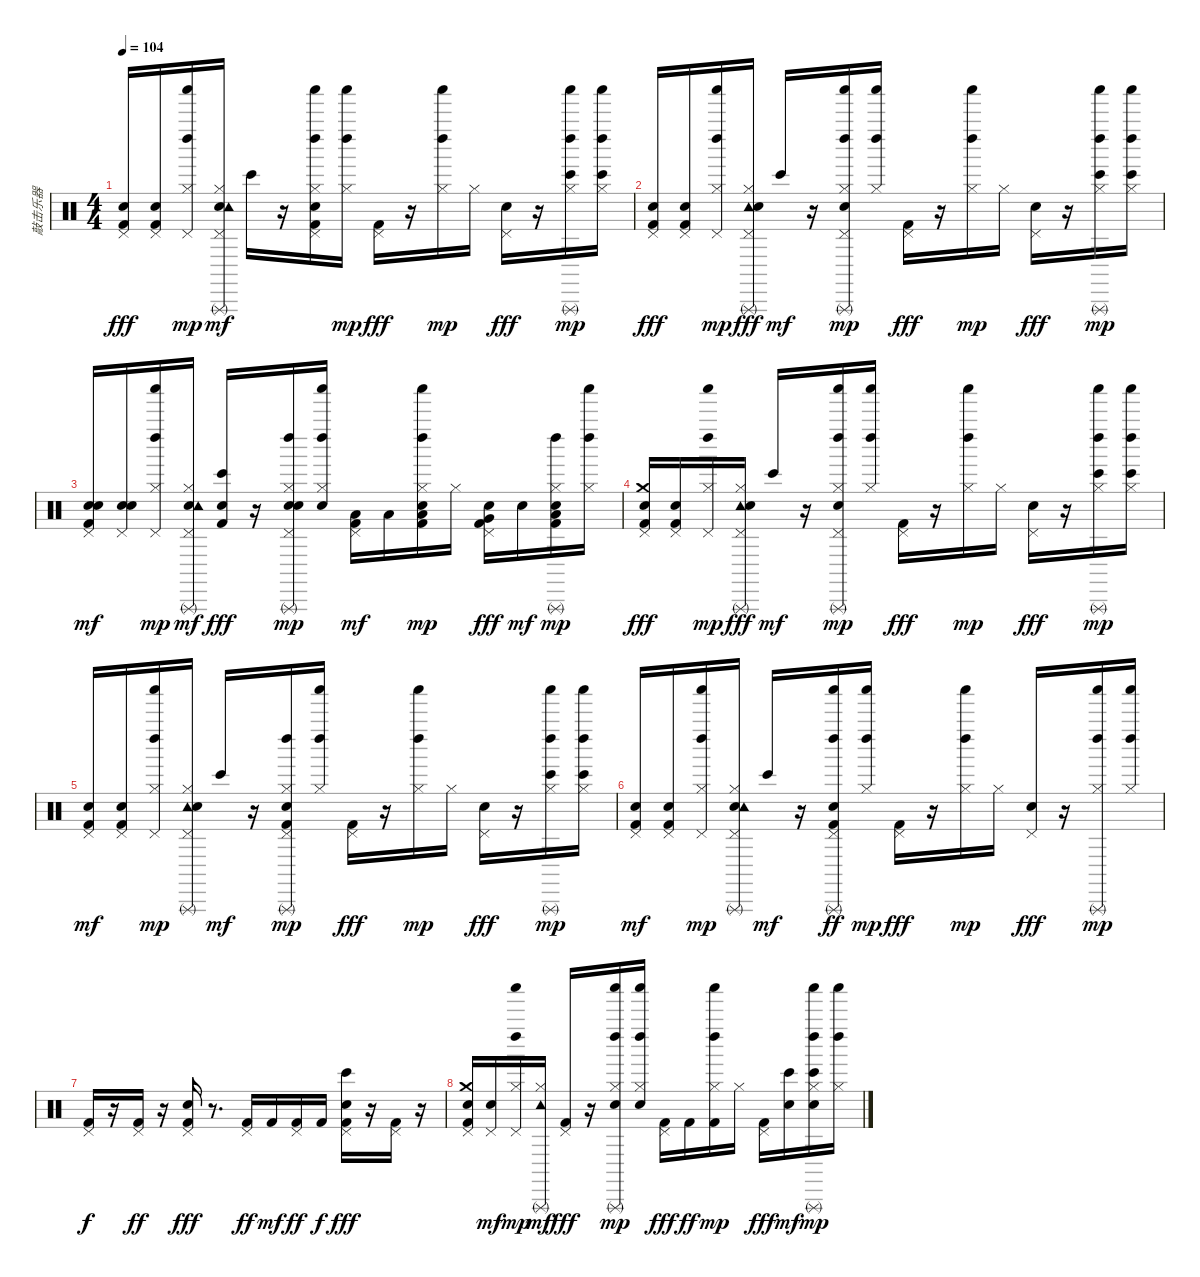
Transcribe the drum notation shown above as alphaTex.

\track ("敲击乐器" "敲击乐器") {instrument percussion}
\staff {score}
\articulation defaults
\ts (4 4)
\tempo 104
\clef neutral
\ks c
("Hand Clap (hit)" "Kick (hit) 2" "Pedal Hi-Hat (hit)").16{dy fff} ("Hand Clap (hit)" "Kick (hit) 2" "Pedal Hi-Hat (hit)").16 ("Left Maraca (hit)" "Shaker (hit)" "Hi-Hat (closed)" "Pedal Hi-Hat (hit)").16{dy mp} ("Hi-Hat (closed)" "Snare (hit) 2" "Tambourine (hit)" "Pedal Hi-Hat (hit)" "Triangle (rnute)").16{dy mf} "Bongo High (hit)".16 r.16 ("Shaker (hit)" "Left Maraca (hit)" "Hi-Hat (closed)" "Kick (hit) 2" "Pedal Hi-Hat (hit)" "Hand Clap (hit)").16 ("Shaker (hit)" "Left Maraca (hit)" "Hi-Hat (closed)").16{dy mp} ("Kick (hit) 2" "Pedal Hi-Hat (hit)").16{dy fff} r.16 ("Shaker (hit)" "Left Maraca (hit)" "Hi-Hat (closed)").16{dy mp} "Hi-Hat (closed)".16 ("Snare (hit) 2" "Pedal Hi-Hat (hit)").16{dy fff} r.16 ("Bongo High (hit)" "Shaker (hit)" "Left Maraca (hit)" "Hi-Hat (closed)" "Triangle (rnute)").16{dy mp} ("Bongo High (hit)" "Shaker (hit)" "Left Maraca (hit)" "Hi-Hat (closed)").16 |
("Pedal Hi-Hat (hit)" "Hand Clap (hit)" "Kick (hit) 2").16{dy fff} ("Pedal Hi-Hat (hit)" "Hand Clap (hit)" "Kick (hit) 2").16 ("Hi-Hat (closed)" "Pedal Hi-Hat (hit)" "Shaker (hit)" "Left Maraca (hit)").16{dy mp} ("Hi-Hat (closed)" "Pedal Hi-Hat (hit)" "Tambourine (hit)" "Triangle (rnute)" "Snare (hit) 2").16{dy fff} "Bongo High (hit)".16{dy mf} r.16 ("Hi-Hat (closed)" "Pedal Hi-Hat (hit)" "Triangle (rnute)" "Left Maraca (hit)" "Shaker (hit)" "Hand Clap (hit)").16{dy mp} ("Hi-Hat (closed)" "Left Maraca (hit)" "Shaker (hit)").16 ("Pedal Hi-Hat (hit)" "Kick (hit) 2").16{dy fff} r.16 ("Hi-Hat (closed)" "Left Maraca (hit)" "Shaker (hit)").16{dy mp} "Hi-Hat (closed)".16 ("Pedal Hi-Hat (hit)" "Snare (hit) 2").16{dy fff} r.16 ("Bongo High (hit)" "Hi-Hat (closed)" "Triangle (rnute)" "Left Maraca (hit)" "Shaker (hit)").16{dy mp} ("Bongo High (hit)" "Hi-Hat (closed)" "Left Maraca (hit)" "Shaker (hit)").16 |
("Hand Clap (hit)" "Pedal Hi-Hat (hit)" "Kick (hit) 2" "Hand Clap (hit)").16{dy mf} ("Hand Clap (hit)" "Pedal Hi-Hat (hit)" "Hand Clap (hit)").16 ("Hi-Hat (closed)" "Pedal Hi-Hat (hit)" "Shaker (hit)" "Left Maraca (hit)").16{dy mp} ("Hand Clap (hit)" "Hi-Hat (closed)" "Triangle (rnute)" "Pedal Hi-Hat (hit)" "Tambourine (hit)").16{dy mf} ("Snare (hit) 2" "Bongo High (hit)" "Kick (hit) 2").16{dy fff} r.16 ("Hand Clap (hit)" "Hi-Hat (closed)" "Triangle (rnute)" "Hand Clap (hit)" "Pedal Hi-Hat (hit)" "Left Maraca (hit)").16{dy mp} ("Hand Clap (hit)" "Hi-Hat (closed)" "Left Maraca (hit)" "Shaker (hit)").16 ("Kick (hit) 2" "Pedal Hi-Hat (hit)" "Low Tom (hit)").16{dy mf} "Low Tom (hit)".16 ("Hand Clap (hit)" "Low Tom (hit)" "Kick (hit) 2" "Hi-Hat (closed)" "Left Maraca (hit)" "Shaker (hit)").16{dy mp} "Hi-Hat (closed)".16 ("Very Low Tom (hit)" "Snare (hit) 2" "Pedal Hi-Hat (hit)" "Kick (hit) 2").16{dy fff} "Hand Clap (hit)".16{dy mf} ("Hand Clap (hit)" "Low Floor Tom (hit)" "Kick (hit) 2" "Hi-Hat (closed)" "Triangle (rnute)" "Left Maraca (hit)").16{dy mp} ("Hi-Hat (closed)" "Left Maraca (hit)" "Shaker (hit)").16 |
("Crash medium (hit)" "Pedal Hi-Hat (hit)" "Hand Clap (hit)" "Kick (hit) 2").16{dy fff} ("Pedal Hi-Hat (hit)" "Hand Clap (hit)" "Kick (hit) 2").16 ("Pedal Hi-Hat (hit)" "Shaker (hit)" "Left Maraca (hit)" "Hi-Hat (closed)").16{dy mp} ("Pedal Hi-Hat (hit)" "Tambourine (hit)" "Triangle (rnute)" "Hi-Hat (closed)" "Snare (hit) 2").16{dy fff} "Bongo High (hit)".16{dy mf} r.16 ("Pedal Hi-Hat (hit)" "Triangle (rnute)" "Left Maraca (hit)" "Shaker (hit)" "Hand Clap (hit)" "Hi-Hat (closed)").16{dy mp} ("Left Maraca (hit)" "Shaker (hit)" "Hi-Hat (closed)").16 ("Pedal Hi-Hat (hit)" "Kick (hit) 2").16{dy fff} r.16 ("Left Maraca (hit)" "Shaker (hit)" "Hi-Hat (closed)").16{dy mp} "Hi-Hat (closed)".16 ("Pedal Hi-Hat (hit)" "Snare (hit) 2").16{dy fff} r.16 ("Triangle (rnute)" "Left Maraca (hit)" "Shaker (hit)" "Hi-Hat (closed)" "Bongo High (hit)").16{dy mp} ("Left Maraca (hit)" "Shaker (hit)" "Hi-Hat (closed)" "Bongo High (hit)").16 |
("Pedal Hi-Hat (hit)" "Kick (hit) 2" "Hand Clap (hit)").16{dy mf} ("Pedal Hi-Hat (hit)" "Kick (hit) 2" "Hand Clap (hit)").16 ("Pedal Hi-Hat (hit)" "Hi-Hat (closed)" "Shaker (hit)" "Left Maraca (hit)").16{dy mp} ("Triangle (rnute)" "Pedal Hi-Hat (hit)" "Tambourine (hit)" "Snare (hit) 2" "Hi-Hat (closed)").16 "Bongo High (hit)".16{dy mf} r.16 ("Triangle (rnute)" "Hand Clap (hit)" "Pedal Hi-Hat (hit)" "Kick (hit) 2" "Hi-Hat (closed)" "Left Maraca (hit)").16{dy mp} ("Hi-Hat (closed)" "Left Maraca (hit)" "Shaker (hit)").16 ("Pedal Hi-Hat (hit)" "Kick (hit) 2").16{dy fff} r.16 ("Hi-Hat (closed)" "Left Maraca (hit)" "Shaker (hit)").16{dy mp} "Hi-Hat (closed)".16 ("Pedal Hi-Hat (hit)" "Snare (hit) 2").16{dy fff} r.16 ("Triangle (rnute)" "Hi-Hat (closed)" "Left Maraca (hit)" "Shaker (hit)" "Bongo High (hit)").16{dy mp} ("Hi-Hat (closed)" "Left Maraca (hit)" "Shaker (hit)" "Bongo High (hit)").16 |
("Kick (hit) 2" "Hand Clap (hit)" "Pedal Hi-Hat (hit)").16{dy mf} ("Kick (hit) 2" "Hand Clap (hit)" "Pedal Hi-Hat (hit)").16 ("Left Maraca (hit)" "Shaker (hit)" "Pedal Hi-Hat (hit)" "Hi-Hat (closed)").16{dy mp} ("Snare (hit) 2" "Triangle (rnute)" "Tambourine (hit)" "Pedal Hi-Hat (hit)" "Hi-Hat (closed)").16 "Bongo High (hit)".16{dy mf} r.16 ("Kick (hit) 2" "Hand Clap (hit)" "Shaker (hit)" "Left Maraca (hit)" "Triangle (rnute)" "Pedal Hi-Hat (hit)").16{dy ff} ("Shaker (hit)" "Left Maraca (hit)" "Hi-Hat (closed)").16{dy mp} ("Kick (hit) 2" "Pedal Hi-Hat (hit)").16{dy fff} r.16 ("Shaker (hit)" "Left Maraca (hit)" "Hi-Hat (closed)").16{dy mp} "Hi-Hat (closed)".16 ("Snare (hit) 2" "Pedal Hi-Hat (hit)").16{dy fff} r.16 ("Shaker (hit)" "Left Maraca (hit)" "Triangle (rnute)" "Hi-Hat (closed)").16{dy mp} ("Shaker (hit)" "Left Maraca (hit)" "Hi-Hat (closed)").16 |
("Pedal Hi-Hat (hit)" "Kick (hit) 2").16{dy f} r.16 ("Pedal Hi-Hat (hit)" "Kick (hit) 2").16{dy ff} r.16 ("Pedal Hi-Hat (hit)" "Kick (hit) 2" "Snare (hit) 2").16{dy fff} r.8{d} ("Pedal Hi-Hat (hit)" "Kick (hit) 2").16{dy ff} "Kick (hit) 2".16{dy mf} ("Pedal Hi-Hat (hit)" "Kick (hit) 2").16{dy ff} "Kick (hit) 2".16{dy f} ("Pedal Hi-Hat (hit)" "Snare (hit) 2" "Kick (hit) 2" "Bongo High (hit)").16{dy fff} r.16 ("Pedal Hi-Hat (hit)" "Kick (hit) 2").16 r.16 |
("Hand Clap (hit)" "Pedal Hi-Hat (hit)" "Crash medium (hit)" "Kick (hit) 2").16 ("Hand Clap (hit)" "Pedal Hi-Hat (hit)").16{dy mf} ("Hi-Hat (closed)" "Left Maraca (hit)" "Shaker (hit)" "Pedal Hi-Hat (hit)").16{dy mp} ("Hi-Hat (closed)" "Tambourine (hit)" "Triangle (rnute)").16{dy mf} ("Pedal Hi-Hat (hit)" "Kick (hit) 2").16{dy fff} r.16 ("Hi-Hat (closed)" "Hand Clap (hit)" "Shaker (hit)" "Left Maraca (hit)" "Triangle (rnute)").16{dy mp} ("Hi-Hat (closed)" "Hand Clap (hit)" "Shaker (hit)" "Left Maraca (hit)").16 ("Kick (hit) 2" "Pedal Hi-Hat (hit)").16{dy fff} "Kick (hit) 2".16{dy ff} ("Hi-Hat (closed)" "Kick (hit) 2" "Shaker (hit)" "Left Maraca (hit)").16{dy mp} "Hi-Hat (closed)".16 ("Kick (hit) 2" "Pedal Hi-Hat (hit)").16{dy fff} ("Bongo High (hit)" "Hand Clap (hit)").16{dy mf} ("Hi-Hat (closed)" "Bongo High (hit)" "Hand Clap (hit)" "Shaker (hit)" "Left Maraca (hit)" "Triangle (rnute)").16{dy mp} ("Hi-Hat (closed)" "Shaker (hit)" "Left Maraca (hit)").16
